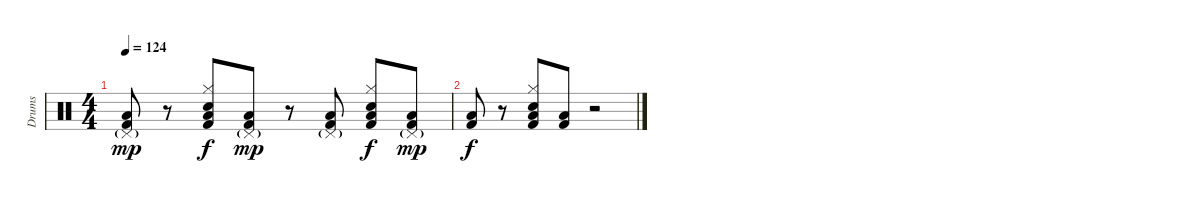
\track ("Drums" "Drums") {instrument percussion}
\staff {score}
\articulation defaults
\ts (4 4)
\tempo 124
\clef neutral
\ks c
("Pedal Hi-Hat (hit)"{g} "Kick (hit) 2" "Low Floor Tom (hit)").8{dy mp} r.8 ("Hi-Hat (closed)" "Electric Snare (hit)" "Kick (hit) 2" "Low Floor Tom (hit)").8{dy f} ("Pedal Hi-Hat (hit)"{g} "Kick (hit) 2" "Low Floor Tom (hit)").8{dy mp} r.8 ("Pedal Hi-Hat (hit)"{g} "Kick (hit) 2" "Low Floor Tom (hit)").8 ("Hi-Hat (closed)" "Electric Snare (hit)" "Kick (hit) 2" "Low Floor Tom (hit)").8{dy f} ("Pedal Hi-Hat (hit)"{g} "Kick (hit) 2" "Low Floor Tom (hit)").8{dy mp} |
("Kick (hit) 2" "Low Floor Tom (hit)").8{dy f} r.8 ("Hi-Hat (closed)" "Electric Snare (hit)" "Kick (hit) 2" "Low Floor Tom (hit)").8 ("Kick (hit) 2" "Low Floor Tom (hit)").8 r.2
